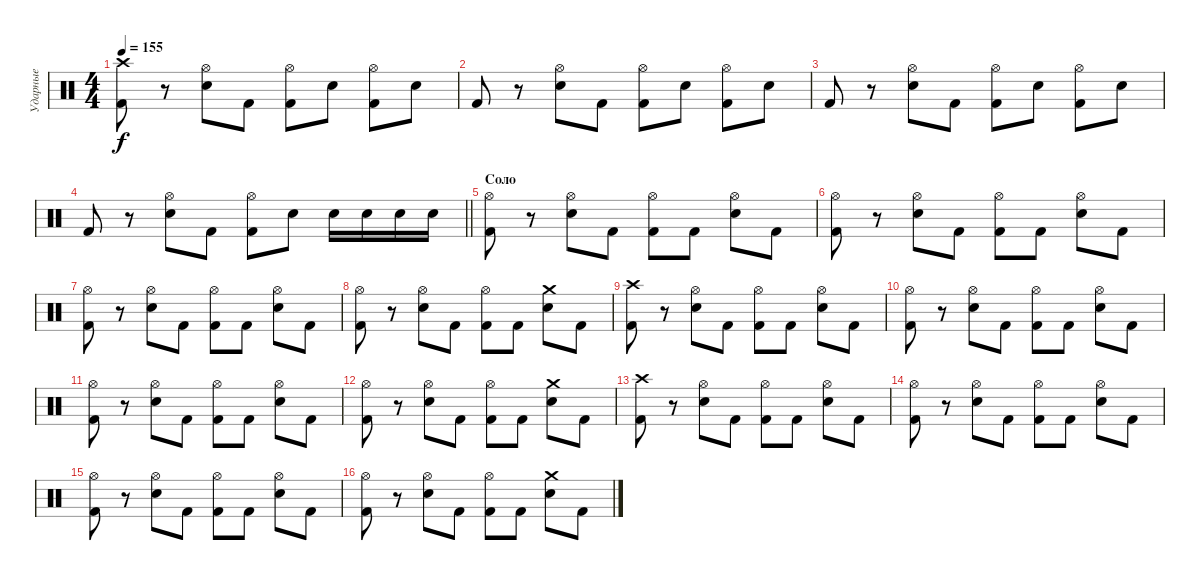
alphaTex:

\track ("Ударные" "Ударные") {instrument percussion}
\staff {score}
\articulation defaults
\ts (4 4)
\tempo 155
\clef neutral
\ks c
("Crash high (hit)" "Kick (hit) 2").8{dy f} r.8 ("Hi-Hat (open)" "Electric Snare (hit)").8 "Kick (hit) 2".8 ("Hi-Hat (open)" "Kick (hit) 2").8 "Electric Snare (hit)".8 ("Hi-Hat (open)" "Kick (hit) 2").8 "Electric Snare (hit)".8 |
"Kick (hit) 2".8 r.8 ("Hi-Hat (open)" "Electric Snare (hit)").8 "Kick (hit) 2".8 ("Hi-Hat (open)" "Kick (hit) 2").8 "Electric Snare (hit)".8 ("Hi-Hat (open)" "Kick (hit) 2").8 "Electric Snare (hit)".8 |
"Kick (hit) 2".8 r.8 ("Hi-Hat (open)" "Electric Snare (hit)").8 "Kick (hit) 2".8 ("Hi-Hat (open)" "Kick (hit) 2").8 "Electric Snare (hit)".8 ("Hi-Hat (open)" "Kick (hit) 2").8 "Electric Snare (hit)".8 |
\barLineRight lightlight "Kick (hit) 2".8
r.8 ("Hi-Hat (open)" "Electric Snare (hit)").8 "Kick (hit) 2".8 ("Hi-Hat (open)" "Kick (hit) 2").8 "Electric Snare (hit)".8 "Electric Snare (hit)".16 "Electric Snare (hit)".16 "Electric Snare (hit)".16 "Electric Snare (hit)".16 |
\section ("" "Соло")
("Hi-Hat (open)" "Kick (hit) 2").8 r.8 ("Hi-Hat (open)" "Electric Snare (hit)").8 "Kick (hit) 2".8 ("Hi-Hat (open)" "Kick (hit) 2").8 "Kick (hit) 2".8 ("Hi-Hat (open)" "Electric Snare (hit)").8 "Kick (hit) 2".8 |
("Hi-Hat (open)" "Kick (hit) 2").8 r.8 ("Hi-Hat (open)" "Electric Snare (hit)").8 "Kick (hit) 2".8 ("Hi-Hat (open)" "Kick (hit) 2").8 "Kick (hit) 2".8 ("Hi-Hat (open)" "Electric Snare (hit)").8 "Kick (hit) 2".8 |
("Hi-Hat (open)" "Kick (hit) 2").8 r.8 ("Hi-Hat (open)" "Electric Snare (hit)").8 "Kick (hit) 2".8 ("Hi-Hat (open)" "Kick (hit) 2").8 "Kick (hit) 2".8 ("Hi-Hat (open)" "Electric Snare (hit)").8 "Kick (hit) 2".8 |
("Hi-Hat (open)" "Kick (hit) 2").8 r.8 ("Hi-Hat (open)" "Electric Snare (hit)").8 "Kick (hit) 2".8 ("Hi-Hat (open)" "Kick (hit) 2").8 "Kick (hit) 2".8 ("Crash medium (hit)" "Electric Snare (hit)").8 "Kick (hit) 2".8 |
("Crash high (hit)" "Kick (hit) 2").8 r.8 ("Hi-Hat (open)" "Electric Snare (hit)").8 "Kick (hit) 2".8 ("Hi-Hat (open)" "Kick (hit) 2").8 "Kick (hit) 2".8 ("Hi-Hat (open)" "Electric Snare (hit)").8 "Kick (hit) 2".8 |
("Hi-Hat (open)" "Kick (hit) 2").8 r.8 ("Hi-Hat (open)" "Electric Snare (hit)").8 "Kick (hit) 2".8 ("Hi-Hat (open)" "Kick (hit) 2").8 "Kick (hit) 2".8 ("Hi-Hat (open)" "Electric Snare (hit)").8 "Kick (hit) 2".8 |
("Hi-Hat (open)" "Kick (hit) 2").8 r.8 ("Hi-Hat (open)" "Electric Snare (hit)").8 "Kick (hit) 2".8 ("Hi-Hat (open)" "Kick (hit) 2").8 "Kick (hit) 2".8 ("Hi-Hat (open)" "Electric Snare (hit)").8 "Kick (hit) 2".8 |
("Hi-Hat (open)" "Kick (hit) 2").8 r.8 ("Hi-Hat (open)" "Electric Snare (hit)").8 "Kick (hit) 2".8 ("Hi-Hat (open)" "Kick (hit) 2").8 "Kick (hit) 2".8 ("Crash medium (hit)" "Electric Snare (hit)").8 "Kick (hit) 2".8 |
("Crash high (hit)" "Kick (hit) 2").8 r.8 ("Hi-Hat (open)" "Electric Snare (hit)").8 "Kick (hit) 2".8 ("Hi-Hat (open)" "Kick (hit) 2").8 "Kick (hit) 2".8 ("Hi-Hat (open)" "Electric Snare (hit)").8 "Kick (hit) 2".8 |
("Hi-Hat (open)" "Kick (hit) 2").8 r.8 ("Hi-Hat (open)" "Electric Snare (hit)").8 "Kick (hit) 2".8 ("Hi-Hat (open)" "Kick (hit) 2").8 "Kick (hit) 2".8 ("Hi-Hat (open)" "Electric Snare (hit)").8 "Kick (hit) 2".8 |
("Hi-Hat (open)" "Kick (hit) 2").8 r.8 ("Hi-Hat (open)" "Electric Snare (hit)").8 "Kick (hit) 2".8 ("Hi-Hat (open)" "Kick (hit) 2").8 "Kick (hit) 2".8 ("Hi-Hat (open)" "Electric Snare (hit)").8 "Kick (hit) 2".8 |
("Hi-Hat (open)" "Kick (hit) 2").8 r.8 ("Hi-Hat (open)" "Electric Snare (hit)").8 "Kick (hit) 2".8 ("Hi-Hat (open)" "Kick (hit) 2").8 "Kick (hit) 2".8 ("Crash medium (hit)" "Electric Snare (hit)").8 "Kick (hit) 2".8
